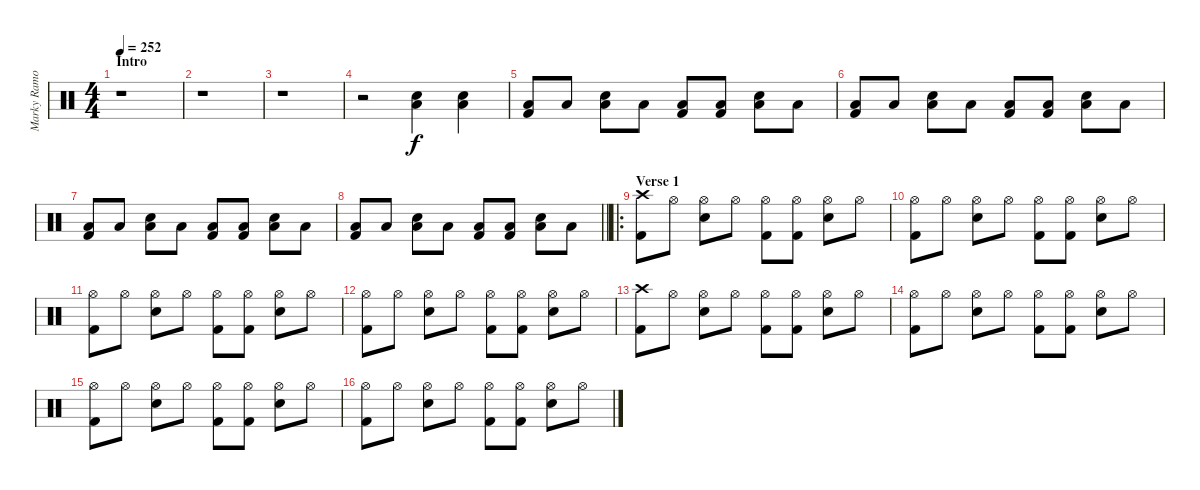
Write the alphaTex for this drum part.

\track ("Marky Ramone - Drums" "Marky Ramo") {instrument percussion}
\staff {score}
\articulation defaults
\ts (4 4)
\section ("" "Intro")
\tempo 252
\clef neutral
\ks c
r.1{dy f} |
r.1 |
r.1 |
r.2 ("Low Floor Tom (hit)" "Snare (hit) 2").4 ("Low Floor Tom (hit)" "Snare (hit) 2").4 |
("Low Floor Tom (hit)" "Kick (hit) 2").8 "Low Floor Tom (hit)".8{volume 10} ("Low Floor Tom (hit)" "Snare (hit) 2").8 "Low Floor Tom (hit)".8{volume 10} ("Low Floor Tom (hit)" "Kick (hit) 2").8 ("Low Floor Tom (hit)" "Kick (hit) 2").8{volume 10} ("Low Floor Tom (hit)" "Snare (hit) 2").8 "Low Floor Tom (hit)".8{volume 10} |
("Low Floor Tom (hit)" "Kick (hit) 2").8 "Low Floor Tom (hit)".8{volume 10} ("Low Floor Tom (hit)" "Snare (hit) 2").8 "Low Floor Tom (hit)".8{volume 10} ("Low Floor Tom (hit)" "Kick (hit) 2").8 ("Low Floor Tom (hit)" "Kick (hit) 2").8{volume 10} ("Low Floor Tom (hit)" "Snare (hit) 2").8 "Low Floor Tom (hit)".8{volume 10} |
("Low Floor Tom (hit)" "Kick (hit) 2").8 "Low Floor Tom (hit)".8{volume 10} ("Low Floor Tom (hit)" "Snare (hit) 2").8 "Low Floor Tom (hit)".8{volume 10} ("Low Floor Tom (hit)" "Kick (hit) 2").8 ("Low Floor Tom (hit)" "Kick (hit) 2").8{volume 10} ("Low Floor Tom (hit)" "Snare (hit) 2").8 "Low Floor Tom (hit)".8{volume 10} |
\barLineRight lightlight
("Low Floor Tom (hit)" "Kick (hit) 2").8 "Low Floor Tom (hit)".8{volume 10} ("Low Floor Tom (hit)" "Snare (hit) 2").8 "Low Floor Tom (hit)".8{volume 10} ("Low Floor Tom (hit)" "Kick (hit) 2").8 ("Low Floor Tom (hit)" "Kick (hit) 2").8{volume 10} ("Low Floor Tom (hit)" "Snare (hit) 2").8 "Low Floor Tom (hit)".8{volume 10} |
\ro
\section ("" "Verse 1")
("Crash high (hit)" "Kick (hit) 2").8 "Hi-Hat (open)".8{volume 10} ("Hi-Hat (open)" "Snare (hit) 2").8 "Hi-Hat (open)".8{volume 10} ("Hi-Hat (open)" "Kick (hit) 2").8 ("Hi-Hat (open)" "Kick (hit) 2").8{volume 10} ("Hi-Hat (open)" "Snare (hit) 2").8 "Hi-Hat (open)".8{volume 10} |
("Hi-Hat (open)" "Kick (hit) 2").8 "Hi-Hat (open)".8{volume 10} ("Hi-Hat (open)" "Snare (hit) 2").8 "Hi-Hat (open)".8{volume 10} ("Hi-Hat (open)" "Kick (hit) 2").8 ("Hi-Hat (open)" "Kick (hit) 2").8{volume 10} ("Hi-Hat (open)" "Snare (hit) 2").8 "Hi-Hat (open)".8{volume 10} |
("Hi-Hat (open)" "Kick (hit) 2").8 "Hi-Hat (open)".8{volume 10} ("Hi-Hat (open)" "Snare (hit) 2").8 "Hi-Hat (open)".8{volume 10} ("Hi-Hat (open)" "Kick (hit) 2").8 ("Hi-Hat (open)" "Kick (hit) 2").8{volume 10} ("Hi-Hat (open)" "Snare (hit) 2").8 "Hi-Hat (open)".8{volume 10} |
("Hi-Hat (open)" "Kick (hit) 2").8 "Hi-Hat (open)".8{volume 10} ("Hi-Hat (open)" "Snare (hit) 2").8 "Hi-Hat (open)".8{volume 10} ("Hi-Hat (open)" "Kick (hit) 2").8 ("Hi-Hat (open)" "Kick (hit) 2").8{volume 10} ("Hi-Hat (open)" "Snare (hit) 2").8 "Hi-Hat (open)".8{volume 10} |
("Crash high (hit)" "Kick (hit) 2").8 "Hi-Hat (open)".8{volume 10} ("Hi-Hat (open)" "Snare (hit) 2").8 "Hi-Hat (open)".8{volume 10} ("Hi-Hat (open)" "Kick (hit) 2").8 ("Hi-Hat (open)" "Kick (hit) 2").8{volume 10} ("Hi-Hat (open)" "Snare (hit) 2").8 "Hi-Hat (open)".8{volume 10} |
("Hi-Hat (open)" "Kick (hit) 2").8 "Hi-Hat (open)".8{volume 10} ("Hi-Hat (open)" "Snare (hit) 2").8 "Hi-Hat (open)".8{volume 10} ("Hi-Hat (open)" "Kick (hit) 2").8 ("Hi-Hat (open)" "Kick (hit) 2").8{volume 10} ("Hi-Hat (open)" "Snare (hit) 2").8 "Hi-Hat (open)".8{volume 10} |
("Hi-Hat (open)" "Kick (hit) 2").8 "Hi-Hat (open)".8{volume 10} ("Hi-Hat (open)" "Snare (hit) 2").8 "Hi-Hat (open)".8{volume 10} ("Hi-Hat (open)" "Kick (hit) 2").8 ("Hi-Hat (open)" "Kick (hit) 2").8{volume 10} ("Hi-Hat (open)" "Snare (hit) 2").8 "Hi-Hat (open)".8{volume 10} |
("Hi-Hat (open)" "Kick (hit) 2").8 "Hi-Hat (open)".8{volume 10} ("Hi-Hat (open)" "Snare (hit) 2").8 "Hi-Hat (open)".8{volume 10} ("Hi-Hat (open)" "Kick (hit) 2").8 ("Hi-Hat (open)" "Kick (hit) 2").8{volume 10} ("Hi-Hat (open)" "Snare (hit) 2").8 "Hi-Hat (open)".8{volume 10}
